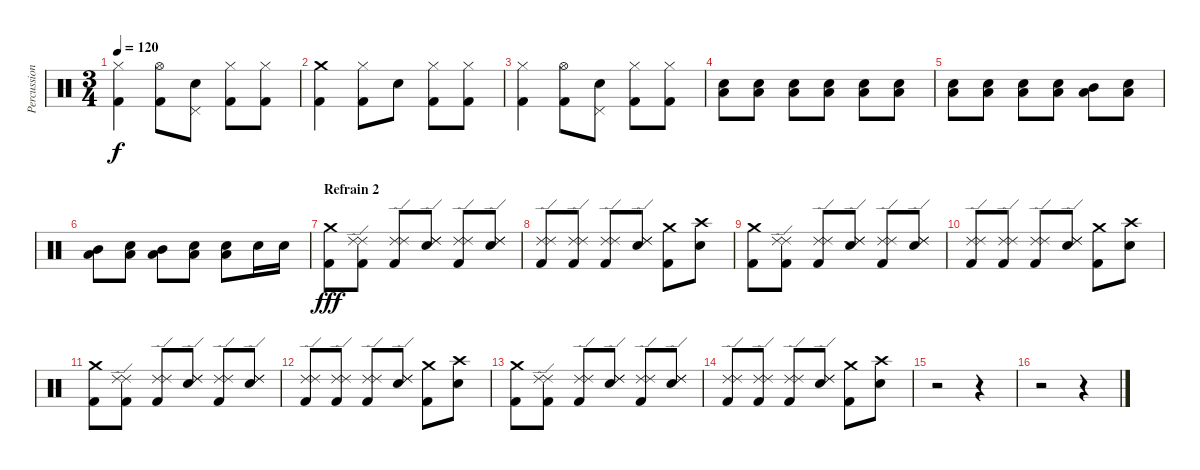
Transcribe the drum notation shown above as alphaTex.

\track ("Percussions" "Percussion") {instrument percussion}
\staff {score}
\articulation defaults
\ts (3 4)
\tempo 120
\clef neutral
\ks c
("Hi-Hat (closed)" "Kick (hit) 2").4{dy f} ("Hi-Hat (open)" "Kick (hit) 2").8 ("Pedal Hi-Hat (hit)" "Snare (hit) 2").8 ("Hi-Hat (closed)" "Kick (hit) 2").8 ("Hi-Hat (closed)" "Kick (hit) 2").8 |
("Crash medium (hit)" "Kick (hit) 2").4 ("Hi-Hat (closed)" "Kick (hit) 2").8 "Snare (hit) 2".8 ("Hi-Hat (closed)" "Kick (hit) 2").8 ("Hi-Hat (closed)" "Kick (hit) 2").8 |
("Hi-Hat (closed)" "Kick (hit) 2").4 ("Hi-Hat (open)" "Kick (hit) 2").8 ("Pedal Hi-Hat (hit)" "Snare (hit) 2").8 ("Hi-Hat (closed)" "Kick (hit) 2").8 ("Hi-Hat (closed)" "Kick (hit) 2").8 |
("Snare (hit) 2" "Low Floor Tom (hit)").8{volume 4} ("Snare (hit) 2" "Low Floor Tom (hit)").8{volume 13} ("Snare (hit) 2" "Low Floor Tom (hit)").8 ("Snare (hit) 2" "Low Floor Tom (hit)").8 ("Snare (hit) 2" "Low Floor Tom (hit)").8 ("Snare (hit) 2" "Low Floor Tom (hit)").8 |
("Snare (hit) 2" "Low Floor Tom (hit)").8 ("Snare (hit) 2" "Low Floor Tom (hit)").8 ("Snare (hit) 2" "Low Floor Tom (hit)").8 ("Snare (hit) 2" "Low Floor Tom (hit)").8 ("Mid Tom (hit)" "Low Tom (hit)").8 ("Snare (hit) 2" "Low Floor Tom (hit)").8 |
("Mid Tom (hit)" "Low Tom (hit)").8 ("Snare (hit) 2" "Low Floor Tom (hit)").8 ("Mid Tom (hit)" "Low Tom (hit)").8 ("Snare (hit) 2" "Low Floor Tom (hit)").8 ("Snare (hit) 2" "Low Floor Tom (hit)").8 "Snare (hit) 2".16 "Snare (hit) 2".16 |
\section ("" "Refrain 2")
("Crash medium (hit)" "Kick (hit) 2").8{dy fff} ("Ride (edge) 2" "Ride (edge) 2" "Kick (hit) 2").8 ("Ride (edge) 2" "Ride (edge) 2" "Kick (hit) 2").8 ("Ride (edge) 2" "Ride (edge) 2" "Snare (hit) 2").8 ("Ride (edge) 2" "Ride (edge) 2" "Kick (hit) 2").8 ("Ride (edge) 2" "Ride (edge) 2" "Snare (hit) 2").8 |
("Ride (edge) 2" "Ride (edge) 2" "Kick (hit) 2").8 ("Ride (edge) 2" "Ride (edge) 2" "Kick (hit) 2").8 ("Ride (edge) 2" "Ride (edge) 2" "Kick (hit) 2").8 ("Ride (edge) 2" "Ride (edge) 2" "Snare (hit) 2").8 ("Crash medium (hit)" "Kick (hit) 2").8 ("Crash high (hit)" "Snare (hit) 2").8 |
("Crash medium (hit)" "Kick (hit) 2").8 ("Ride (edge) 2" "Ride (edge) 2" "Kick (hit) 2").8 ("Ride (edge) 2" "Ride (edge) 2" "Kick (hit) 2").8 ("Ride (edge) 2" "Ride (edge) 2" "Snare (hit) 2").8 ("Ride (edge) 2" "Ride (edge) 2" "Kick (hit) 2").8 ("Ride (edge) 2" "Ride (edge) 2" "Snare (hit) 2").8 |
("Ride (edge) 2" "Ride (edge) 2" "Kick (hit) 2").8 ("Ride (edge) 2" "Ride (edge) 2" "Kick (hit) 2").8 ("Ride (edge) 2" "Ride (edge) 2" "Kick (hit) 2").8 ("Ride (edge) 2" "Ride (edge) 2" "Snare (hit) 2").8 ("Crash medium (hit)" "Kick (hit) 2").8 ("Crash high (hit)" "Snare (hit) 2").8 |
("Crash medium (hit)" "Kick (hit) 2").8 ("Ride (edge) 2" "Ride (edge) 2" "Kick (hit) 2").8 ("Ride (edge) 2" "Ride (edge) 2" "Kick (hit) 2").8 ("Ride (edge) 2" "Ride (edge) 2" "Snare (hit) 2").8 ("Ride (edge) 2" "Ride (edge) 2" "Kick (hit) 2").8 ("Ride (edge) 2" "Ride (edge) 2" "Snare (hit) 2").8 |
("Ride (edge) 2" "Ride (edge) 2" "Kick (hit) 2").8 ("Ride (edge) 2" "Ride (edge) 2" "Kick (hit) 2").8 ("Ride (edge) 2" "Ride (edge) 2" "Kick (hit) 2").8 ("Ride (edge) 2" "Ride (edge) 2" "Snare (hit) 2").8 ("Crash medium (hit)" "Kick (hit) 2").8 ("Crash high (hit)" "Snare (hit) 2").8 |
("Crash medium (hit)" "Kick (hit) 2").8 ("Ride (edge) 2" "Ride (edge) 2" "Kick (hit) 2").8 ("Ride (edge) 2" "Ride (edge) 2" "Kick (hit) 2").8 ("Ride (edge) 2" "Ride (edge) 2" "Snare (hit) 2").8 ("Ride (edge) 2" "Ride (edge) 2" "Kick (hit) 2").8 ("Ride (edge) 2" "Ride (edge) 2" "Snare (hit) 2").8 |
("Ride (edge) 2" "Ride (edge) 2" "Kick (hit) 2").8 ("Ride (edge) 2" "Ride (edge) 2" "Kick (hit) 2").8 ("Ride (edge) 2" "Ride (edge) 2" "Kick (hit) 2").8 ("Ride (edge) 2" "Ride (edge) 2" "Snare (hit) 2").8 ("Crash medium (hit)" "Kick (hit) 2").8 ("Crash high (hit)" "Snare (hit) 2").8 |
r.2 r.4 |
r.2 r.4
